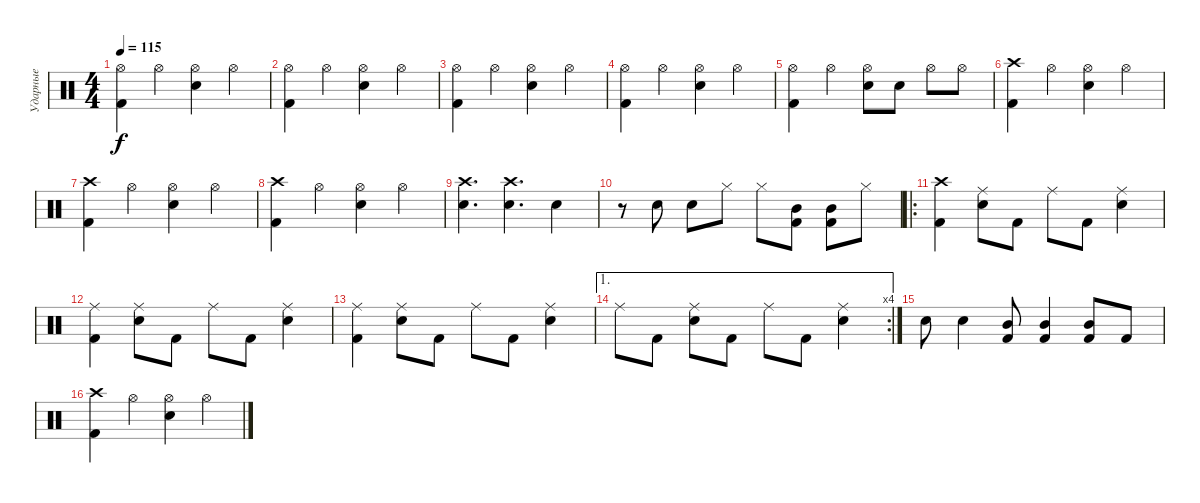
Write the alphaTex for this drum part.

\track ("Ударные" "Ударные") {instrument percussion}
\staff {score}
\articulation defaults
\ts (4 4)
\tempo 115
\clef neutral
\ks c
("Kick (hit) 2" "Hi-Hat (open)").4{dy f} "Hi-Hat (open)".4 ("Snare (hit) 2" "Hi-Hat (open)").4 "Hi-Hat (open)".4 |
("Kick (hit) 2" "Hi-Hat (open)").4 "Hi-Hat (open)".4 ("Snare (hit) 2" "Hi-Hat (open)").4 "Hi-Hat (open)".4 |
("Kick (hit) 2" "Hi-Hat (open)").4 "Hi-Hat (open)".4 ("Snare (hit) 2" "Hi-Hat (open)").4 "Hi-Hat (open)".4 |
("Kick (hit) 2" "Hi-Hat (open)").4 "Hi-Hat (open)".4 ("Snare (hit) 2" "Hi-Hat (open)").4 "Hi-Hat (open)".4 |
("Kick (hit) 2" "Hi-Hat (open)").4 "Hi-Hat (open)".4 ("Snare (hit) 2" "Hi-Hat (open)").8 "Snare (hit) 2".8 "Hi-Hat (open)".8 "Hi-Hat (open)".8 |
("Kick (hit) 2" "Crash high (hit)").4 "Hi-Hat (open)".4 ("Snare (hit) 2" "Hi-Hat (open)").4 "Hi-Hat (open)".4 |
("Kick (hit) 2" "Crash high (hit)").4 "Hi-Hat (open)".4 ("Snare (hit) 2" "Hi-Hat (open)").4 "Hi-Hat (open)".4 |
("Kick (hit) 2" "Crash high (hit)").4 "Hi-Hat (open)".4 ("Snare (hit) 2" "Hi-Hat (open)").4 "Hi-Hat (open)".4 |
("Snare (hit) 2" "Crash high (hit)").4{d} ("Snare (hit) 2" "Crash high (hit)").4{d} "Snare (hit) 2".4 |
r.8 "Snare (hit) 2".8 "Snare (hit) 2".8 "Hi-Hat (closed)".8 "Hi-Hat (closed)".8 ("Kick (hit) 2" "Mid Tom (hit)").8 ("Kick (hit) 2" "Mid Tom (hit)").8 "Hi-Hat (closed)".8 |
\ro
("Kick (hit) 2" "Crash high (hit)").4 ("Snare (hit) 2" "Ride (middle)").8 "Kick (hit) 2".8 "Ride (middle)".8 "Kick (hit) 2".8 ("Snare (hit) 2" "Ride (middle)").4 |
("Kick (hit) 2" "Ride (middle)").4 ("Snare (hit) 2" "Ride (middle)").8 "Kick (hit) 2".8 "Ride (middle)".8 "Kick (hit) 2".8 ("Snare (hit) 2" "Ride (middle)").4 |
("Kick (hit) 2" "Ride (middle)").4 ("Snare (hit) 2" "Ride (middle)").8 "Kick (hit) 2".8 "Ride (middle)".8 "Kick (hit) 2".8 ("Snare (hit) 2" "Ride (middle)").4 |
\ae 1
\rc 4 "Ride (middle)".8 "Kick (hit) 2".8
("Snare (hit) 2" "Ride (middle)").8 "Kick (hit) 2".8 "Ride (middle)".8 "Kick (hit) 2".8 ("Snare (hit) 2" "Ride (middle)").4 |
"Snare (hit) 2".8 "Electric Snare (hit)".4 ("Kick (hit) 2" "Mid Tom (hit)").8 ("Kick (hit) 2" "Mid Tom (hit)").4 ("Kick (hit) 2" "Mid Tom (hit)").8 "Kick (hit) 2".8 |
("Kick (hit) 2" "Crash high (hit)").4 "Hi-Hat (open)".4 ("Snare (hit) 2" "Hi-Hat (open)").4 "Hi-Hat (open)".4
